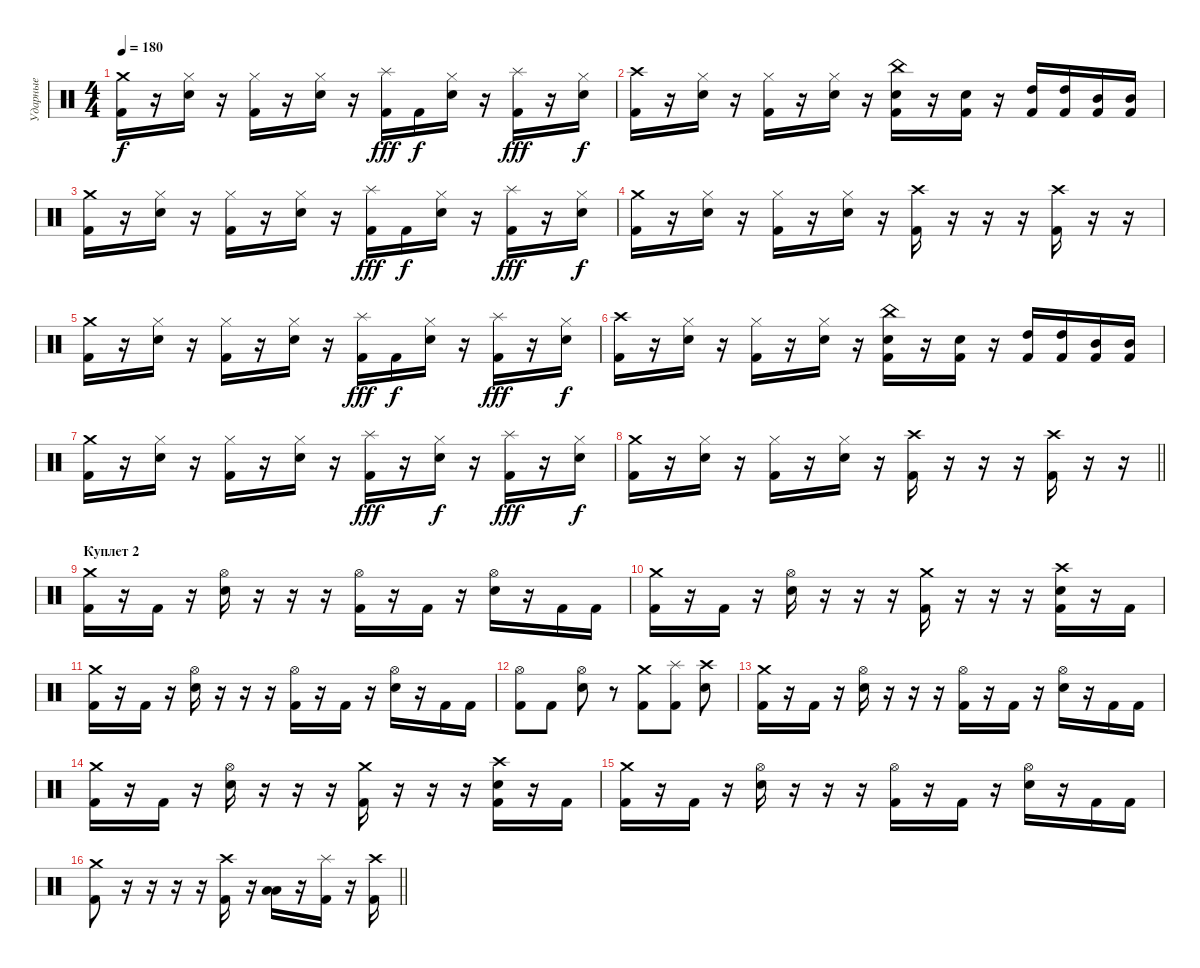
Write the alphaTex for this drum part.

\track ("Ударные" "Ударные") {instrument percussion}
\staff {score}
\articulation defaults
\ts (4 4)
\tempo 180
\clef neutral
\ks c
("Crash medium (hit)" "Kick (hit) 2").16{dy f} r.16 ("Hi-Hat (closed)" "Snare (hit) 2").16 r.16 ("Hi-Hat (closed)" "Kick (hit) 2").16 r.16 ("Hi-Hat (closed)" "Snare (hit) 2").16 r.16 ("Splash (hit)" "Kick (hit) 2").16{dy fff} "Kick (hit) 2".16{dy f} ("Hi-Hat (closed)" "Snare (hit) 2").16 r.16 ("Splash (hit)" "Kick (hit) 2").16{dy fff} r.16 ("Hi-Hat (closed)" "Snare (hit) 2").16{dy f} |
("Crash high (hit)" "Kick (hit) 2").16 r.16 ("Hi-Hat (closed)" "Snare (hit) 2").16 r.16 ("Hi-Hat (closed)" "Kick (hit) 2").16 r.16 ("Hi-Hat (closed)" "Snare (hit) 2").16 r.16 ("China (hit)" "Snare (hit) 2" "Kick (hit) 2").16 r.16 ("Snare (hit) 2" "Kick (hit) 2").16 r.16 ("High Tom (hit)" "Kick (hit) 2").16 ("High Tom (hit)" "Kick (hit) 2").16 ("Mid Tom (hit)" "Kick (hit) 2").16 ("Mid Tom (hit)" "Kick (hit) 2").16 |
("Crash medium (hit)" "Kick (hit) 2").16 r.16 ("Hi-Hat (closed)" "Snare (hit) 2").16 r.16 ("Hi-Hat (closed)" "Kick (hit) 2").16 r.16 ("Hi-Hat (closed)" "Snare (hit) 2").16 r.16 ("Splash (hit)" "Kick (hit) 2").16{dy fff} "Kick (hit) 2".16{dy f} ("Hi-Hat (closed)" "Snare (hit) 2").16 r.16 ("Splash (hit)" "Kick (hit) 2").16{dy fff} r.16 ("Hi-Hat (closed)" "Snare (hit) 2").16{dy f} |
("Crash medium (hit)" "Kick (hit) 2").16 r.16 ("Hi-Hat (closed)" "Snare (hit) 2").16 r.16 ("Hi-Hat (closed)" "Kick (hit) 2").16 r.16 ("Hi-Hat (closed)" "Snare (hit) 2").16 r.16 ("Crash high (hit)" "Kick (hit) 2").16 r.16 r.16 r.16 ("Crash high (hit)" "Kick (hit) 2").16 r.16 r.16 |
("Crash medium (hit)" "Kick (hit) 2").16 r.16 ("Hi-Hat (closed)" "Snare (hit) 2").16 r.16 ("Hi-Hat (closed)" "Kick (hit) 2").16 r.16 ("Hi-Hat (closed)" "Snare (hit) 2").16 r.16 ("Splash (hit)" "Kick (hit) 2").16{dy fff} "Kick (hit) 2".16{dy f} ("Hi-Hat (closed)" "Snare (hit) 2").16 r.16 ("Splash (hit)" "Kick (hit) 2").16{dy fff} r.16 ("Hi-Hat (closed)" "Snare (hit) 2").16{dy f} |
("Crash high (hit)" "Kick (hit) 2").16 r.16 ("Hi-Hat (closed)" "Snare (hit) 2").16 r.16 ("Hi-Hat (closed)" "Kick (hit) 2").16 r.16 ("Hi-Hat (closed)" "Snare (hit) 2").16 r.16 ("China (hit)" "Snare (hit) 2" "Kick (hit) 2").16 r.16 ("Snare (hit) 2" "Kick (hit) 2").16 r.16 ("High Tom (hit)" "Kick (hit) 2").16 ("High Tom (hit)" "Kick (hit) 2").16 ("Mid Tom (hit)" "Kick (hit) 2").16 ("Mid Tom (hit)" "Kick (hit) 2").16 |
("Crash medium (hit)" "Kick (hit) 2").16 r.16 ("Hi-Hat (closed)" "Snare (hit) 2").16 r.16 ("Hi-Hat (closed)" "Kick (hit) 2").16 r.16 ("Hi-Hat (closed)" "Snare (hit) 2").16 r.16 ("Splash (hit)" "Kick (hit) 2").16{dy fff} r.16 ("Hi-Hat (closed)" "Snare (hit) 2").16{dy f} r.16 ("Splash (hit)" "Kick (hit) 2").16{dy fff} r.16 ("Hi-Hat (closed)" "Snare (hit) 2").16{dy f} |
\barLineRight lightlight
("Crash medium (hit)" "Kick (hit) 2").16 r.16 ("Hi-Hat (closed)" "Snare (hit) 2").16 r.16 ("Hi-Hat (closed)" "Kick (hit) 2").16 r.16 ("Hi-Hat (closed)" "Snare (hit) 2").16 r.16 ("Crash high (hit)" "Kick (hit) 2").16 r.16 r.16 r.16 ("Crash high (hit)" "Kick (hit) 2").16 r.16 r.16 |
\section ("" "Куплет 2")
("Crash medium (hit)" "Kick (hit) 2").16 r.16 "Kick (hit) 2".16 r.16 ("Hi-Hat (open)" "Snare (hit) 2").16 r.16 r.16 r.16 ("Hi-Hat (open)" "Kick (hit) 2").16 r.16 "Kick (hit) 2".16 r.16 ("Hi-Hat (open)" "Snare (hit) 2").16 r.16 "Kick (hit) 2".16 "Kick (hit) 2".16 |
("Crash medium (hit)" "Kick (hit) 2").16 r.16 "Kick (hit) 2".16 r.16 ("Hi-Hat (open)" "Snare (hit) 2").16 r.16 r.16 r.16 ("Crash medium (hit)" "Kick (hit) 2").16 r.16 r.16 r.16 ("Crash high (hit)" "Snare (hit) 2" "Kick (hit) 2").16 r.16 "Kick (hit) 2".16 |
("Crash medium (hit)" "Kick (hit) 2").16 r.16 "Kick (hit) 2".16 r.16 ("Hi-Hat (open)" "Snare (hit) 2").16 r.16 r.16 r.16 ("Hi-Hat (open)" "Kick (hit) 2").16 r.16 "Kick (hit) 2".16 r.16 ("Hi-Hat (open)" "Snare (hit) 2").16 r.16 "Kick (hit) 2".16 "Kick (hit) 2".16 |
("Hi-Hat (open)" "Kick (hit) 2").8 "Kick (hit) 2".8 ("Hi-Hat (open)" "Snare (hit) 2").8 r.8 ("Crash medium (hit)" "Kick (hit) 2").8 ("Splash (hit)" "Kick (hit) 2").8 ("Crash high (hit)" "Snare (hit) 2").8 |
("Crash medium (hit)" "Kick (hit) 2").16 r.16 "Kick (hit) 2".16 r.16 ("Hi-Hat (open)" "Snare (hit) 2").16 r.16 r.16 r.16 ("Hi-Hat (open)" "Kick (hit) 2").16 r.16 "Kick (hit) 2".16 r.16 ("Hi-Hat (open)" "Snare (hit) 2").16 r.16 "Kick (hit) 2".16 "Kick (hit) 2".16 |
("Crash medium (hit)" "Kick (hit) 2").16 r.16 "Kick (hit) 2".16 r.16 ("Hi-Hat (open)" "Snare (hit) 2").16 r.16 r.16 r.16 ("Crash medium (hit)" "Kick (hit) 2").16 r.16 r.16 r.16 ("Crash high (hit)" "Snare (hit) 2" "Kick (hit) 2").16 r.16 "Kick (hit) 2".16 |
("Crash medium (hit)" "Kick (hit) 2").16 r.16 "Kick (hit) 2".16 r.16 ("Hi-Hat (open)" "Snare (hit) 2").16 r.16 r.16 r.16 ("Hi-Hat (open)" "Kick (hit) 2").16 r.16 "Kick (hit) 2".16 r.16 ("Hi-Hat (open)" "Snare (hit) 2").16 r.16 "Kick (hit) 2".16 "Kick (hit) 2".16 |
\barLineRight lightlight
("Crash medium (hit)" "Kick (hit) 2").8 r.16 r.16 r.16 r.16 ("Crash high (hit)" "Kick (hit) 2").16 r.16 ("Low Tom (hit)" "Low Floor Tom (hit)").16 r.16 ("Splash (hit)" "Kick (hit) 2").16 r.16 ("Crash high (hit)" "Kick (hit) 2").16
